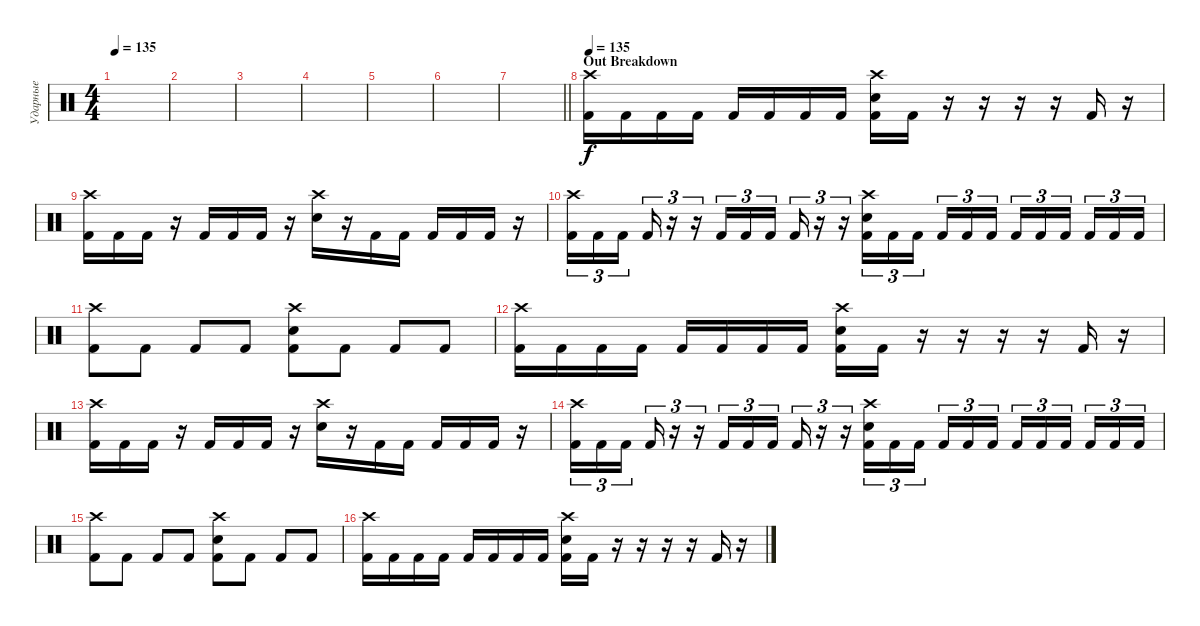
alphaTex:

\track ("Ударные" "Ударные") {instrument percussion}
\staff {score}
\articulation defaults
\ts (4 4)
\tempo 135
\clef neutral
\ks c
|
|
|
|
|
|
\barLineRight lightlight
|
\section ("" "Out Breakdown")
\tempo 135
("Crash high (hit)" "Kick (hit) 2").16 "Kick (hit) 2".16 "Kick (hit) 2".16 "Kick (hit) 2".16 "Kick (hit) 2".16 "Kick (hit) 2".16 "Kick (hit) 2".16 "Kick (hit) 2".16 ("Crash high (hit)" "Electric Snare (hit)" "Kick (hit) 2").16 "Kick (hit) 2".16 r.16 r.16 r.16 r.16 "Kick (hit) 2".16 r.16 |
("Crash high (hit)" "Kick (hit) 2").16 "Kick (hit) 2".16 "Kick (hit) 2".16 r.16 "Kick (hit) 2".16 "Kick (hit) 2".16 "Kick (hit) 2".16 r.16 ("Crash high (hit)" "Electric Snare (hit)").16 r.16 "Kick (hit) 2".16 "Kick (hit) 2".16 "Kick (hit) 2".16 "Kick (hit) 2".16 "Kick (hit) 2".16 r.16 |
("Crash high (hit)" "Kick (hit) 2").16{tu (3 2)} "Kick (hit) 2".16{tu (3 2)} "Kick (hit) 2".16{tu (3 2) beam splitsecondary} "Kick (hit) 2".16{tu (3 2)} r.16{tu (3 2)} r.16{tu (3 2)} "Kick (hit) 2".16{tu (3 2)} "Kick (hit) 2".16{tu (3 2)} "Kick (hit) 2".16{tu (3 2) beam splitsecondary} "Kick (hit) 2".16{tu (3 2)} r.16{tu (3 2)} r.16{tu (3 2)} ("Crash high (hit)" "Electric Snare (hit)" "Kick (hit) 2").16{tu (3 2)} "Kick (hit) 2".16{tu (3 2)} "Kick (hit) 2".16{tu (3 2) beam splitsecondary} "Kick (hit) 2".16{tu (3 2)} "Kick (hit) 2".16{tu (3 2)} "Kick (hit) 2".16{tu (3 2)} "Kick (hit) 2".16{tu (3 2)} "Kick (hit) 2".16{tu (3 2)} "Kick (hit) 2".16{tu (3 2) beam splitsecondary} "Kick (hit) 2".16{tu (3 2)} "Kick (hit) 2".16{tu (3 2)} "Kick (hit) 2".16{tu (3 2)} |
("Crash high (hit)" "Kick (hit) 2").8 "Kick (hit) 2".8 "Kick (hit) 2".8 "Kick (hit) 2".8 ("Crash high (hit)" "Electric Snare (hit)" "Kick (hit) 2").8 "Kick (hit) 2".8 "Kick (hit) 2".8 "Kick (hit) 2".8 |
("Crash high (hit)" "Kick (hit) 2").16 "Kick (hit) 2".16 "Kick (hit) 2".16 "Kick (hit) 2".16 "Kick (hit) 2".16 "Kick (hit) 2".16 "Kick (hit) 2".16 "Kick (hit) 2".16 ("Crash high (hit)" "Electric Snare (hit)" "Kick (hit) 2").16 "Kick (hit) 2".16 r.16 r.16 r.16 r.16 "Kick (hit) 2".16 r.16 |
("Crash high (hit)" "Kick (hit) 2").16 "Kick (hit) 2".16 "Kick (hit) 2".16 r.16 "Kick (hit) 2".16 "Kick (hit) 2".16 "Kick (hit) 2".16 r.16 ("Crash high (hit)" "Electric Snare (hit)").16 r.16 "Kick (hit) 2".16 "Kick (hit) 2".16 "Kick (hit) 2".16 "Kick (hit) 2".16 "Kick (hit) 2".16 r.16 |
("Crash high (hit)" "Kick (hit) 2").16{tu (3 2)} "Kick (hit) 2".16{tu (3 2)} "Kick (hit) 2".16{tu (3 2) beam splitsecondary} "Kick (hit) 2".16{tu (3 2)} r.16{tu (3 2)} r.16{tu (3 2)} "Kick (hit) 2".16{tu (3 2)} "Kick (hit) 2".16{tu (3 2)} "Kick (hit) 2".16{tu (3 2) beam splitsecondary} "Kick (hit) 2".16{tu (3 2)} r.16{tu (3 2)} r.16{tu (3 2)} ("Crash high (hit)" "Electric Snare (hit)" "Kick (hit) 2").16{tu (3 2)} "Kick (hit) 2".16{tu (3 2)} "Kick (hit) 2".16{tu (3 2) beam splitsecondary} "Kick (hit) 2".16{tu (3 2)} "Kick (hit) 2".16{tu (3 2)} "Kick (hit) 2".16{tu (3 2)} "Kick (hit) 2".16{tu (3 2)} "Kick (hit) 2".16{tu (3 2)} "Kick (hit) 2".16{tu (3 2) beam splitsecondary} "Kick (hit) 2".16{tu (3 2)} "Kick (hit) 2".16{tu (3 2)} "Kick (hit) 2".16{tu (3 2)} |
("Crash high (hit)" "Kick (hit) 2").8 "Kick (hit) 2".8 "Kick (hit) 2".8 "Kick (hit) 2".8 ("Crash high (hit)" "Electric Snare (hit)" "Kick (hit) 2").8 "Kick (hit) 2".8 "Kick (hit) 2".8 "Kick (hit) 2".8 |
("Crash high (hit)" "Kick (hit) 2").16 "Kick (hit) 2".16 "Kick (hit) 2".16 "Kick (hit) 2".16 "Kick (hit) 2".16 "Kick (hit) 2".16 "Kick (hit) 2".16 "Kick (hit) 2".16 ("Crash high (hit)" "Electric Snare (hit)" "Kick (hit) 2").16 "Kick (hit) 2".16 r.16 r.16 r.16 r.16 "Kick (hit) 2".16 r.16
